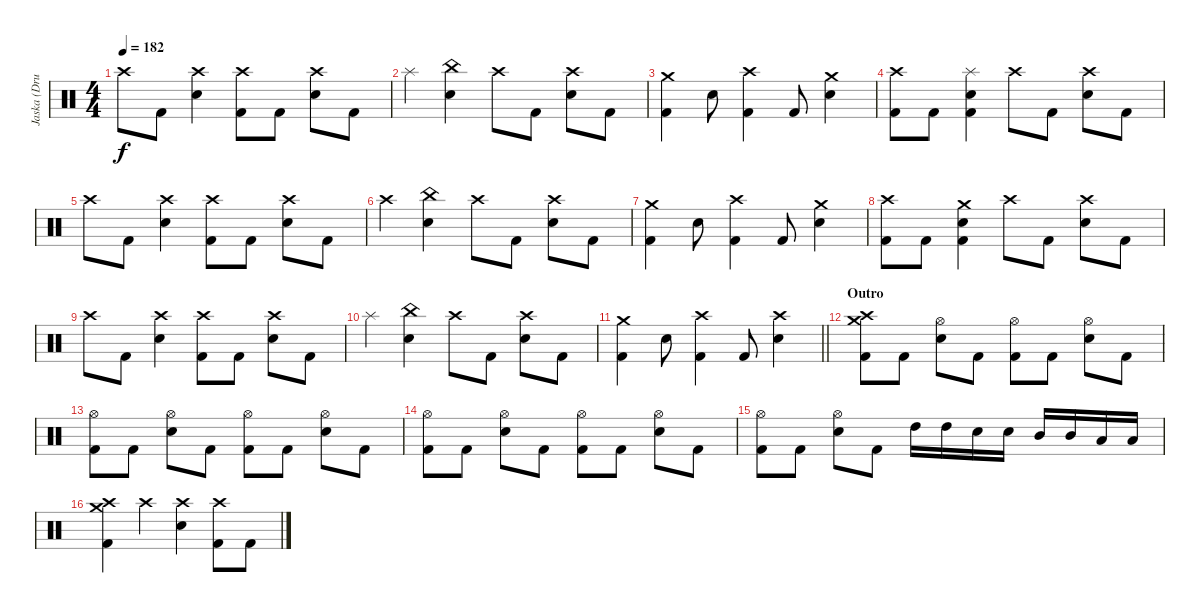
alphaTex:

\track ("Jaska (Drums)" "Jaska (Dru") {instrument percussion}
\staff {score}
\articulation defaults
\ts (4 4)
\tempo 182
\clef neutral
\ks c "Crash high (hit)".8{dy f} "Kick (hit) 2".8
("Crash high (hit)" "Electric Snare (hit)").4 ("Crash high (hit)" "Kick (hit) 2").8 "Kick (hit) 2".8 ("Crash high (hit)" "Electric Snare (hit)").8 "Kick (hit) 2".8 |
"Splash (hit)".4 ("China (hit)" "Electric Snare (hit)").4 "Crash high (hit)".8 "Kick (hit) 2".8 ("Crash high (hit)" "Electric Snare (hit)").8 "Kick (hit) 2".8 |
("Crash medium (hit)" "Kick (hit) 2").4 "Electric Snare (hit)".8 ("Crash high (hit)" "Kick (hit) 2").4 "Kick (hit) 2".8 ("Crash medium (hit)" "Electric Snare (hit)").4 |
("Crash high (hit)" "Kick (hit) 2").8 "Kick (hit) 2".8 ("Splash (hit)" "Electric Snare (hit)" "Kick (hit) 2").4 "Crash high (hit)".8 "Kick (hit) 2".8 ("Crash high (hit)" "Electric Snare (hit)").8 "Kick (hit) 2".8 |
"Crash high (hit)".8 "Kick (hit) 2".8 ("Crash high (hit)" "Electric Snare (hit)").4 ("Crash high (hit)" "Kick (hit) 2").8 "Kick (hit) 2".8 ("Crash high (hit)" "Electric Snare (hit)").8 "Kick (hit) 2".8 |
"Crash high (hit)".4 ("China (hit)" "Electric Snare (hit)").4 "Crash high (hit)".8 "Kick (hit) 2".8 ("Crash high (hit)" "Electric Snare (hit)").8 "Kick (hit) 2".8 |
("Crash medium (hit)" "Kick (hit) 2").4 "Electric Snare (hit)".8 ("Crash high (hit)" "Kick (hit) 2").4 "Kick (hit) 2".8 ("Crash medium (hit)" "Electric Snare (hit)").4 |
("Crash high (hit)" "Kick (hit) 2").8 "Kick (hit) 2".8 ("Crash medium (hit)" "Electric Snare (hit)" "Kick (hit) 2").4 "Crash high (hit)".8 "Kick (hit) 2".8 ("Crash high (hit)" "Electric Snare (hit)").8 "Kick (hit) 2".8 |
"Crash high (hit)".8 "Kick (hit) 2".8 ("Crash high (hit)" "Electric Snare (hit)").4 ("Crash high (hit)" "Kick (hit) 2").8 "Kick (hit) 2".8 ("Crash high (hit)" "Electric Snare (hit)").8 "Kick (hit) 2".8 |
"Splash (hit)".4 ("China (hit)" "Electric Snare (hit)").4 "Crash high (hit)".8 "Kick (hit) 2".8 ("Crash high (hit)" "Electric Snare (hit)").8 "Kick (hit) 2".8 |
\barLineRight lightlight
("Crash medium (hit)" "Kick (hit) 2").4 "Electric Snare (hit)".8 ("Crash high (hit)" "Kick (hit) 2").4 "Kick (hit) 2".8 ("Crash high (hit)" "Electric Snare (hit)").4 |
\section ("" "Outro")
("Crash medium (hit)" "Crash high (hit)" "Kick (hit) 2").8 "Kick (hit) 2".8 ("Hi-Hat (open)" "Electric Snare (hit)").8 "Kick (hit) 2".8 ("Hi-Hat (open)" "Kick (hit) 2").8 "Kick (hit) 2".8 ("Hi-Hat (open)" "Electric Snare (hit)").8 "Kick (hit) 2".8 |
("Hi-Hat (open)" "Kick (hit) 2").8 "Kick (hit) 2".8 ("Hi-Hat (open)" "Electric Snare (hit)").8 "Kick (hit) 2".8 ("Hi-Hat (open)" "Kick (hit) 2").8 "Kick (hit) 2".8 ("Hi-Hat (open)" "Electric Snare (hit)").8 "Kick (hit) 2".8 |
("Hi-Hat (open)" "Kick (hit) 2").8 "Kick (hit) 2".8 ("Hi-Hat (open)" "Electric Snare (hit)").8 "Kick (hit) 2".8 ("Hi-Hat (open)" "Kick (hit) 2").8 "Kick (hit) 2".8 ("Hi-Hat (open)" "Electric Snare (hit)").8 "Kick (hit) 2".8 |
("Hi-Hat (open)" "Kick (hit) 2").8 "Kick (hit) 2".8 ("Hi-Hat (open)" "Electric Snare (hit)").8 "Kick (hit) 2".8 "High Tom (hit)".16 "High Tom (hit)".16 "Electric Snare (hit)".16 "Electric Snare (hit)".16 "Mid Tom (hit)".16 "Mid Tom (hit)".16 "Low Tom (hit)".16 "Low Tom (hit)".16 |
("Crash medium (hit)" "Crash high (hit)" "Kick (hit) 2").4 "Crash high (hit)".4 ("Crash high (hit)" "Electric Snare (hit)").4 ("Crash high (hit)" "Kick (hit) 2").8 "Kick (hit) 2".8
